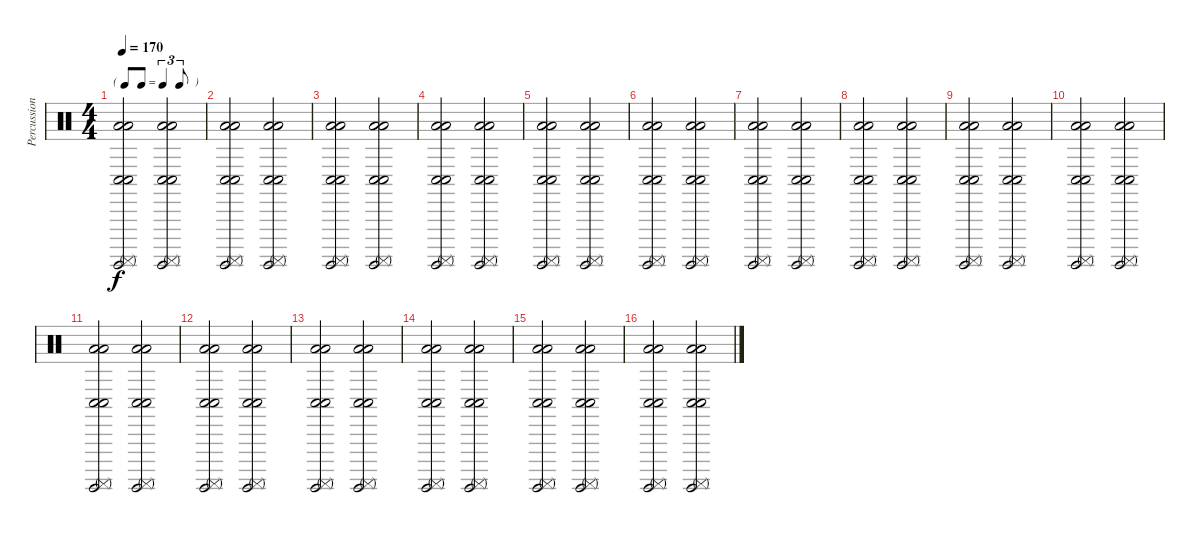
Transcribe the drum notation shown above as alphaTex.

\track ("Percussions" "Percussion") {instrument percussion}
\staff {score}
\articulation defaults
\ts (4 4)
\tf triplet8th
\tempo 170
\clef neutral
\ks c
("Conga low (hit)" "Conga low (hit)" "Low Floor Tom (hit)" "Surdo (hit)" "Surdo (mute)" "Low Floor Tom (hit)").2{dy f} ("Conga low (hit)" "Conga low (hit)" "Low Floor Tom (hit)" "Surdo (hit)" "Surdo (mute)" "Low Floor Tom (hit)").2 |
("Conga low (hit)" "Conga low (hit)" "Low Floor Tom (hit)" "Surdo (hit)" "Surdo (mute)" "Low Floor Tom (hit)").2 ("Conga low (hit)" "Conga low (hit)" "Low Floor Tom (hit)" "Surdo (hit)" "Surdo (mute)" "Low Floor Tom (hit)").2 |
("Conga low (hit)" "Conga low (hit)" "Low Floor Tom (hit)" "Surdo (hit)" "Surdo (mute)" "Low Floor Tom (hit)").2 ("Conga low (hit)" "Conga low (hit)" "Low Floor Tom (hit)" "Surdo (hit)" "Surdo (mute)" "Low Floor Tom (hit)").2 |
("Conga low (hit)" "Conga low (hit)" "Low Floor Tom (hit)" "Surdo (hit)" "Surdo (mute)" "Low Floor Tom (hit)").2 ("Conga low (hit)" "Conga low (hit)" "Low Floor Tom (hit)" "Surdo (hit)" "Surdo (mute)" "Low Floor Tom (hit)").2 |
("Conga low (hit)" "Conga low (hit)" "Low Floor Tom (hit)" "Surdo (hit)" "Surdo (mute)" "Low Floor Tom (hit)").2 ("Conga low (hit)" "Conga low (hit)" "Low Floor Tom (hit)" "Surdo (hit)" "Surdo (mute)" "Low Floor Tom (hit)").2 |
("Conga low (hit)" "Conga low (hit)" "Low Floor Tom (hit)" "Surdo (hit)" "Surdo (mute)" "Low Floor Tom (hit)").2 ("Conga low (hit)" "Conga low (hit)" "Low Floor Tom (hit)" "Surdo (hit)" "Surdo (mute)" "Low Floor Tom (hit)").2 |
("Conga low (hit)" "Conga low (hit)" "Low Floor Tom (hit)" "Surdo (hit)" "Surdo (mute)" "Low Floor Tom (hit)").2 ("Conga low (hit)" "Conga low (hit)" "Low Floor Tom (hit)" "Surdo (hit)" "Surdo (mute)" "Low Floor Tom (hit)").2 |
("Conga low (hit)" "Conga low (hit)" "Low Floor Tom (hit)" "Surdo (hit)" "Surdo (mute)" "Low Floor Tom (hit)").2 ("Conga low (hit)" "Conga low (hit)" "Low Floor Tom (hit)" "Surdo (hit)" "Surdo (mute)" "Low Floor Tom (hit)").2 |
("Conga low (hit)" "Conga low (hit)" "Low Floor Tom (hit)" "Surdo (hit)" "Surdo (mute)" "Low Floor Tom (hit)").2 ("Conga low (hit)" "Conga low (hit)" "Low Floor Tom (hit)" "Surdo (hit)" "Surdo (mute)" "Low Floor Tom (hit)").2 |
("Conga low (hit)" "Conga low (hit)" "Low Floor Tom (hit)" "Surdo (hit)" "Surdo (mute)" "Low Floor Tom (hit)").2 ("Conga low (hit)" "Conga low (hit)" "Low Floor Tom (hit)" "Surdo (hit)" "Surdo (mute)" "Low Floor Tom (hit)").2 |
("Conga low (hit)" "Conga low (hit)" "Low Floor Tom (hit)" "Surdo (hit)" "Surdo (mute)" "Low Floor Tom (hit)").2 ("Conga low (hit)" "Conga low (hit)" "Low Floor Tom (hit)" "Surdo (hit)" "Surdo (mute)" "Low Floor Tom (hit)").2 |
("Conga low (hit)" "Conga low (hit)" "Low Floor Tom (hit)" "Surdo (hit)" "Surdo (mute)" "Low Floor Tom (hit)").2 ("Conga low (hit)" "Conga low (hit)" "Low Floor Tom (hit)" "Surdo (hit)" "Surdo (mute)" "Low Floor Tom (hit)").2 |
("Conga low (hit)" "Conga low (hit)" "Low Floor Tom (hit)" "Surdo (hit)" "Surdo (mute)" "Low Floor Tom (hit)").2 ("Conga low (hit)" "Conga low (hit)" "Low Floor Tom (hit)" "Surdo (hit)" "Surdo (mute)" "Low Floor Tom (hit)").2 |
("Conga low (hit)" "Conga low (hit)" "Low Floor Tom (hit)" "Surdo (hit)" "Surdo (mute)" "Low Floor Tom (hit)").2 ("Conga low (hit)" "Conga low (hit)" "Low Floor Tom (hit)" "Surdo (hit)" "Surdo (mute)" "Low Floor Tom (hit)").2 |
("Conga low (hit)" "Conga low (hit)" "Low Floor Tom (hit)" "Surdo (hit)" "Surdo (mute)" "Low Floor Tom (hit)").2 ("Conga low (hit)" "Conga low (hit)" "Low Floor Tom (hit)" "Surdo (hit)" "Surdo (mute)" "Low Floor Tom (hit)").2 |
("Conga low (hit)" "Conga low (hit)" "Low Floor Tom (hit)" "Surdo (hit)" "Surdo (mute)" "Low Floor Tom (hit)").2 ("Conga low (hit)" "Conga low (hit)" "Low Floor Tom (hit)" "Surdo (hit)" "Surdo (mute)" "Low Floor Tom (hit)").2
